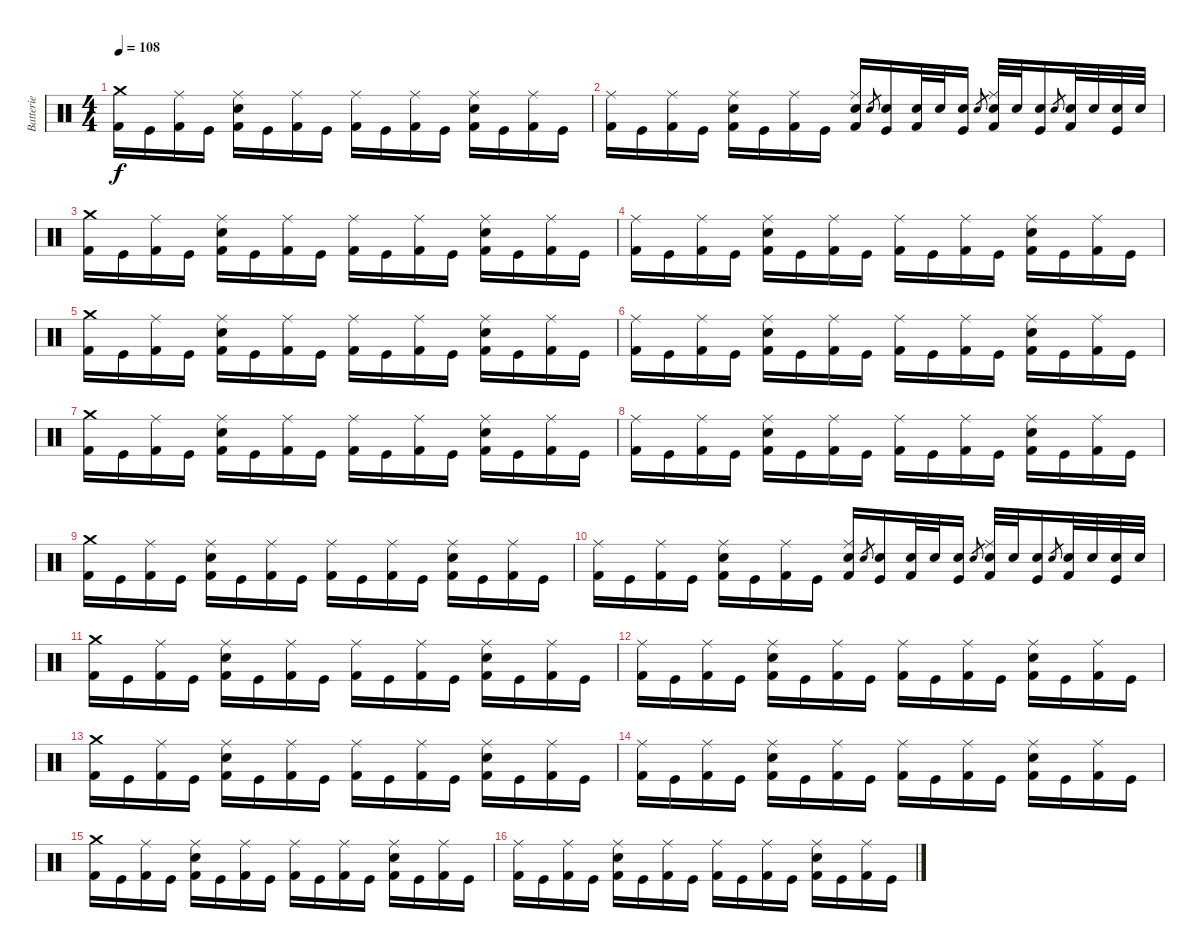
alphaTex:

\track ("Batterie" "Batterie") {instrument percussion}
\staff {score}
\articulation defaults
\ts (4 4)
\tempo 108
\clef neutral
\ks c
("Crash medium (hit)" "Kick (hit) 2").16{dy f} "Kick (hit)".16 ("Ride (middle)" "Kick (hit) 2").16 "Kick (hit)".16 ("Ride (middle)" "Snare (hit) 2" "Kick (hit) 2").16 "Kick (hit)".16 ("Ride (middle)" "Kick (hit) 2").16 "Kick (hit)".16 ("Ride (middle)" "Kick (hit) 2").16 "Kick (hit)".16 ("Ride (middle)" "Kick (hit) 2").16 "Kick (hit)".16 ("Ride (middle)" "Snare (hit) 2" "Kick (hit) 2").16 "Kick (hit)".16 ("Ride (middle)" "Kick (hit) 2").16 "Kick (hit)".16 |
("Ride (middle)" "Kick (hit) 2").16 "Kick (hit)".16 ("Ride (middle)" "Kick (hit) 2").16 "Kick (hit)".16 ("Ride (middle)" "Snare (hit) 2" "Kick (hit) 2").16 "Kick (hit)".16 ("Ride (middle)" "Kick (hit) 2").16 "Kick (hit)".16 ("Ride (middle)" "Snare (hit) 2" "Kick (hit) 2").16 "Snare (hit) 2".8{gr} ("Snare (hit) 2" "Kick (hit)").16 ("Snare (hit) 2" "Kick (hit) 2").32 "Snare (hit) 2".32 ("Snare (hit) 2" "Kick (hit)").16 "Snare (hit) 2".8{gr} ("Ride (middle)" "Snare (hit) 2" "Kick (hit) 2").32 "Snare (hit) 2".32 ("Snare (hit) 2" "Kick (hit)").16 "Snare (hit) 2".8{gr} ("Snare (hit) 2" "Kick (hit) 2").32 "Snare (hit) 2".32 ("Snare (hit) 2" "Kick (hit)").32 "Snare (hit) 2".32 |
("Crash medium (hit)" "Kick (hit) 2").16 "Kick (hit)".16 ("Ride (middle)" "Kick (hit) 2").16 "Kick (hit)".16 ("Ride (middle)" "Snare (hit) 2" "Kick (hit) 2").16 "Kick (hit)".16 ("Ride (middle)" "Kick (hit) 2").16 "Kick (hit)".16 ("Ride (middle)" "Kick (hit) 2").16 "Kick (hit)".16 ("Ride (middle)" "Kick (hit) 2").16 "Kick (hit)".16 ("Ride (middle)" "Snare (hit) 2" "Kick (hit) 2").16 "Kick (hit)".16 ("Ride (middle)" "Kick (hit) 2").16 "Kick (hit)".16 |
("Ride (middle)" "Kick (hit) 2").16 "Kick (hit)".16 ("Ride (middle)" "Kick (hit) 2").16 "Kick (hit)".16 ("Ride (middle)" "Snare (hit) 2" "Kick (hit) 2").16 "Kick (hit)".16 ("Ride (middle)" "Kick (hit) 2").16 "Kick (hit)".16 ("Ride (middle)" "Kick (hit) 2").16 "Kick (hit)".16 ("Ride (middle)" "Kick (hit) 2").16 "Kick (hit)".16 ("Ride (middle)" "Snare (hit) 2" "Kick (hit) 2").16 "Kick (hit)".16 ("Ride (middle)" "Kick (hit) 2").16 "Kick (hit)".16 |
("Crash medium (hit)" "Kick (hit) 2").16 "Kick (hit)".16 ("Ride (middle)" "Kick (hit) 2").16 "Kick (hit)".16 ("Ride (middle)" "Snare (hit) 2" "Kick (hit) 2").16 "Kick (hit)".16 ("Ride (middle)" "Kick (hit) 2").16 "Kick (hit)".16 ("Ride (middle)" "Kick (hit) 2").16 "Kick (hit)".16 ("Ride (middle)" "Kick (hit) 2").16 "Kick (hit)".16 ("Ride (middle)" "Snare (hit) 2" "Kick (hit) 2").16 "Kick (hit)".16 ("Ride (middle)" "Kick (hit) 2").16 "Kick (hit)".16 |
("Ride (middle)" "Kick (hit) 2").16 "Kick (hit)".16 ("Ride (middle)" "Kick (hit) 2").16 "Kick (hit)".16 ("Ride (middle)" "Snare (hit) 2" "Kick (hit) 2").16 "Kick (hit)".16 ("Ride (middle)" "Kick (hit) 2").16 "Kick (hit)".16 ("Ride (middle)" "Kick (hit) 2").16 "Kick (hit)".16 ("Ride (middle)" "Kick (hit) 2").16 "Kick (hit)".16 ("Ride (middle)" "Snare (hit) 2" "Kick (hit) 2").16 "Kick (hit)".16 ("Ride (middle)" "Kick (hit) 2").16 "Kick (hit)".16 |
("Crash medium (hit)" "Kick (hit) 2").16 "Kick (hit)".16 ("Ride (middle)" "Kick (hit) 2").16 "Kick (hit)".16 ("Ride (middle)" "Snare (hit) 2" "Kick (hit) 2").16 "Kick (hit)".16 ("Ride (middle)" "Kick (hit) 2").16 "Kick (hit)".16 ("Ride (middle)" "Kick (hit) 2").16 "Kick (hit)".16 ("Ride (middle)" "Kick (hit) 2").16 "Kick (hit)".16 ("Ride (middle)" "Snare (hit) 2" "Kick (hit) 2").16 "Kick (hit)".16 ("Ride (middle)" "Kick (hit) 2").16 "Kick (hit)".16 |
("Ride (middle)" "Kick (hit) 2").16 "Kick (hit)".16 ("Ride (middle)" "Kick (hit) 2").16 "Kick (hit)".16 ("Ride (middle)" "Snare (hit) 2" "Kick (hit) 2").16 "Kick (hit)".16 ("Ride (middle)" "Kick (hit) 2").16 "Kick (hit)".16 ("Ride (middle)" "Kick (hit) 2").16 "Kick (hit)".16 ("Ride (middle)" "Kick (hit) 2").16 "Kick (hit)".16 ("Ride (middle)" "Snare (hit) 2" "Kick (hit) 2").16 "Kick (hit)".16 ("Ride (middle)" "Kick (hit) 2").16 "Kick (hit)".16 |
("Crash medium (hit)" "Kick (hit) 2").16 "Kick (hit)".16 ("Ride (middle)" "Kick (hit) 2").16 "Kick (hit)".16 ("Ride (middle)" "Snare (hit) 2" "Kick (hit) 2").16 "Kick (hit)".16 ("Ride (middle)" "Kick (hit) 2").16 "Kick (hit)".16 ("Ride (middle)" "Kick (hit) 2").16 "Kick (hit)".16 ("Ride (middle)" "Kick (hit) 2").16 "Kick (hit)".16 ("Ride (middle)" "Snare (hit) 2" "Kick (hit) 2").16 "Kick (hit)".16 ("Ride (middle)" "Kick (hit) 2").16 "Kick (hit)".16 |
("Ride (middle)" "Kick (hit) 2").16 "Kick (hit)".16 ("Ride (middle)" "Kick (hit) 2").16 "Kick (hit)".16 ("Ride (middle)" "Snare (hit) 2" "Kick (hit) 2").16 "Kick (hit)".16 ("Ride (middle)" "Kick (hit) 2").16 "Kick (hit)".16 ("Ride (middle)" "Snare (hit) 2" "Kick (hit) 2").16 "Snare (hit) 2".8{gr} ("Snare (hit) 2" "Kick (hit)").16 ("Snare (hit) 2" "Kick (hit) 2").32 "Snare (hit) 2".32 ("Snare (hit) 2" "Kick (hit)").16 "Snare (hit) 2".8{gr} ("Ride (middle)" "Snare (hit) 2" "Kick (hit) 2").32 "Snare (hit) 2".32 ("Snare (hit) 2" "Kick (hit)").16 "Snare (hit) 2".8{gr} ("Snare (hit) 2" "Kick (hit) 2").32 "Snare (hit) 2".32 ("Snare (hit) 2" "Kick (hit)").32 "Snare (hit) 2".32 |
("Crash medium (hit)" "Kick (hit) 2").16 "Kick (hit)".16 ("Ride (middle)" "Kick (hit) 2").16 "Kick (hit)".16 ("Ride (middle)" "Snare (hit) 2" "Kick (hit) 2").16 "Kick (hit)".16 ("Ride (middle)" "Kick (hit) 2").16 "Kick (hit)".16 ("Ride (middle)" "Kick (hit) 2").16 "Kick (hit)".16 ("Ride (middle)" "Kick (hit) 2").16 "Kick (hit)".16 ("Ride (middle)" "Snare (hit) 2" "Kick (hit) 2").16 "Kick (hit)".16 ("Ride (middle)" "Kick (hit) 2").16 "Kick (hit)".16 |
("Ride (middle)" "Kick (hit) 2").16 "Kick (hit)".16 ("Ride (middle)" "Kick (hit) 2").16 "Kick (hit)".16 ("Ride (middle)" "Snare (hit) 2" "Kick (hit) 2").16 "Kick (hit)".16 ("Ride (middle)" "Kick (hit) 2").16 "Kick (hit)".16 ("Ride (middle)" "Kick (hit) 2").16 "Kick (hit)".16 ("Ride (middle)" "Kick (hit) 2").16 "Kick (hit)".16 ("Ride (middle)" "Snare (hit) 2" "Kick (hit) 2").16 "Kick (hit)".16 ("Ride (middle)" "Kick (hit) 2").16 "Kick (hit)".16 |
("Crash medium (hit)" "Kick (hit) 2").16 "Kick (hit)".16 ("Ride (middle)" "Kick (hit) 2").16 "Kick (hit)".16 ("Ride (middle)" "Snare (hit) 2" "Kick (hit) 2").16 "Kick (hit)".16 ("Ride (middle)" "Kick (hit) 2").16 "Kick (hit)".16 ("Ride (middle)" "Kick (hit) 2").16 "Kick (hit)".16 ("Ride (middle)" "Kick (hit) 2").16 "Kick (hit)".16 ("Ride (middle)" "Snare (hit) 2" "Kick (hit) 2").16 "Kick (hit)".16 ("Ride (middle)" "Kick (hit) 2").16 "Kick (hit)".16 |
("Ride (middle)" "Kick (hit) 2").16 "Kick (hit)".16 ("Ride (middle)" "Kick (hit) 2").16 "Kick (hit)".16 ("Ride (middle)" "Snare (hit) 2" "Kick (hit) 2").16 "Kick (hit)".16 ("Ride (middle)" "Kick (hit) 2").16 "Kick (hit)".16 ("Ride (middle)" "Kick (hit) 2").16 "Kick (hit)".16 ("Ride (middle)" "Kick (hit) 2").16 "Kick (hit)".16 ("Ride (middle)" "Snare (hit) 2" "Kick (hit) 2").16 "Kick (hit)".16 ("Ride (middle)" "Kick (hit) 2").16 "Kick (hit)".16 |
("Crash medium (hit)" "Kick (hit) 2").16 "Kick (hit)".16 ("Ride (middle)" "Kick (hit) 2").16 "Kick (hit)".16 ("Ride (middle)" "Snare (hit) 2" "Kick (hit) 2").16 "Kick (hit)".16 ("Ride (middle)" "Kick (hit) 2").16 "Kick (hit)".16 ("Ride (middle)" "Kick (hit) 2").16 "Kick (hit)".16 ("Ride (middle)" "Kick (hit) 2").16 "Kick (hit)".16 ("Ride (middle)" "Snare (hit) 2" "Kick (hit) 2").16 "Kick (hit)".16 ("Ride (middle)" "Kick (hit) 2").16 "Kick (hit)".16 |
("Ride (middle)" "Kick (hit) 2").16 "Kick (hit)".16 ("Ride (middle)" "Kick (hit) 2").16 "Kick (hit)".16 ("Ride (middle)" "Snare (hit) 2" "Kick (hit) 2").16 "Kick (hit)".16 ("Ride (middle)" "Kick (hit) 2").16 "Kick (hit)".16 ("Ride (middle)" "Kick (hit) 2").16 "Kick (hit)".16 ("Ride (middle)" "Kick (hit) 2").16 "Kick (hit)".16 ("Ride (middle)" "Snare (hit) 2" "Kick (hit) 2").16 "Kick (hit)".16 ("Ride (middle)" "Kick (hit) 2").16 "Kick (hit)".16
